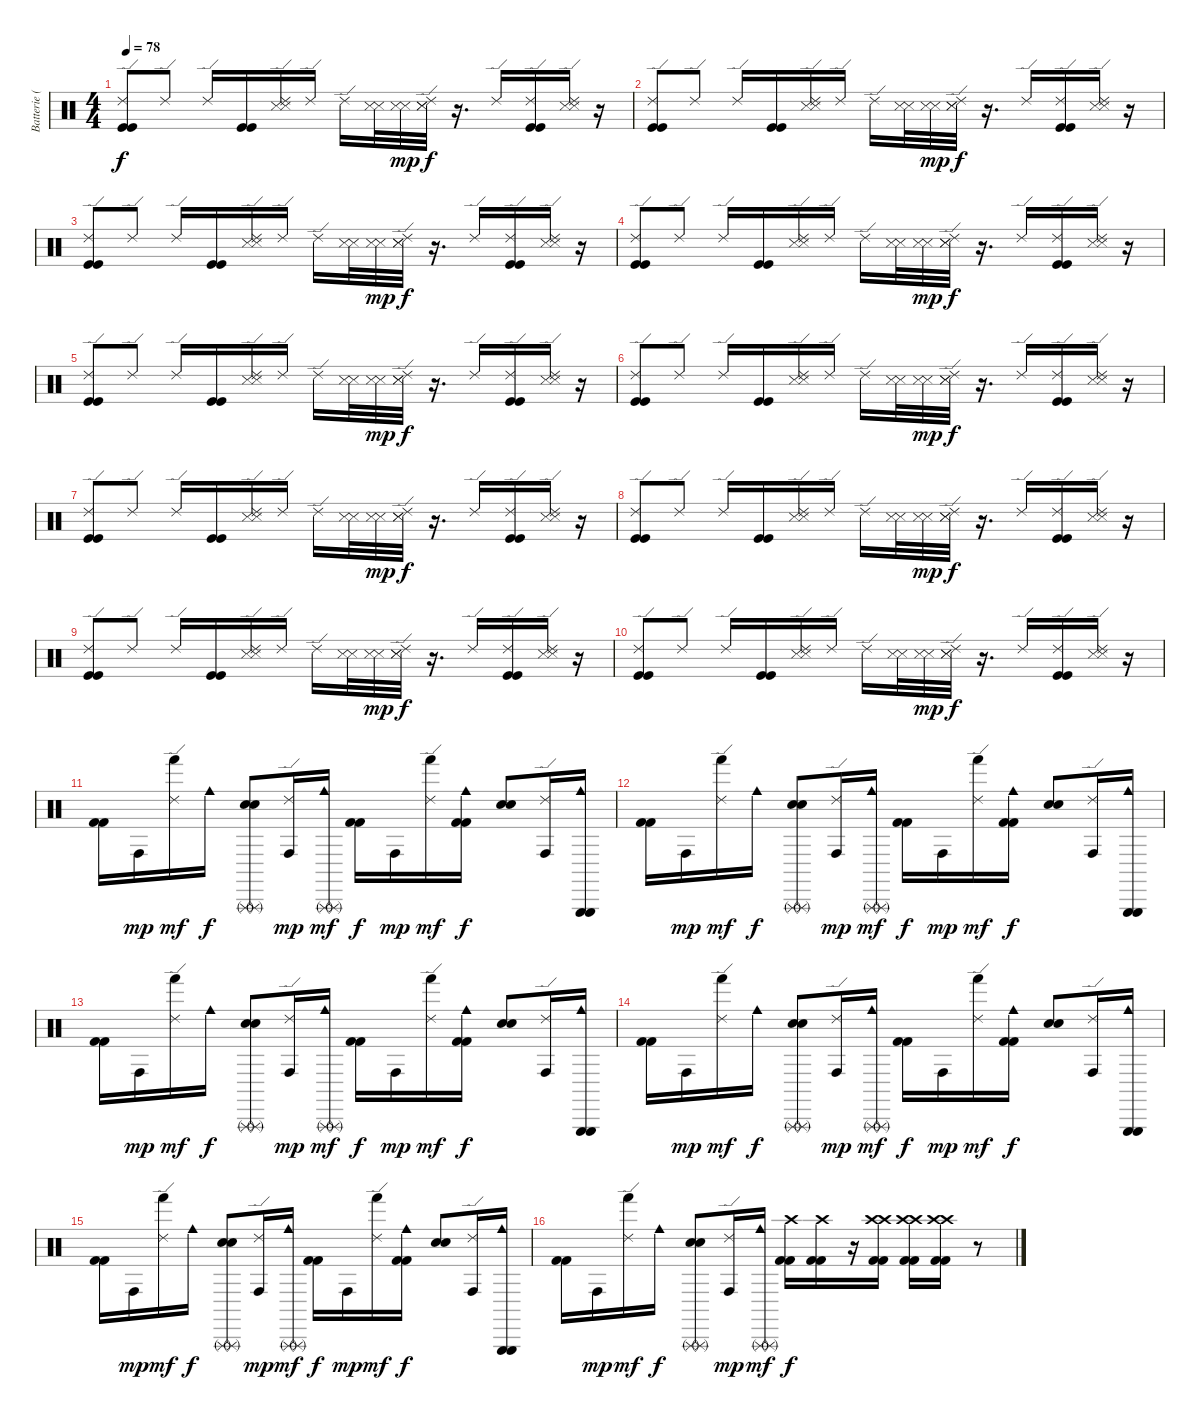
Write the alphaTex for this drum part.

\track ("Batterie ( Raphaël )" "Batterie (") {instrument percussion}
\staff {score}
\articulation defaults
\ts (4 4)
\tempo 78
\clef neutral
\ks c
("Ride (edge) 2" "Kick (hit)" "Kick (hit)").8{dy f} "Ride (edge) 2".8 "Ride (edge) 2".16 ("Kick (hit)" "Kick (hit)").16 ("Ride (edge) 2" "Snare (side stick) 3" "Snare (side stick) 3").16 "Ride (edge) 2".16 "Ride (edge) 2".16 ("Snare (side stick) 3" "Snare (side stick) 3").32 ("Snare (side stick) 3" "Snare (side stick) 3").32{dy mp} ("Ride (edge) 2" "Snare (side stick) 3" "Snare (side stick) 3").32{dy f} r.16{d} "Ride (edge) 2".16 ("Ride (edge) 2" "Kick (hit)" "Kick (hit)").16 ("Ride (edge) 2" "Snare (side stick) 3" "Snare (side stick) 3").16 r.16 |
("Ride (edge) 2" "Kick (hit)" "Kick (hit)").8 "Ride (edge) 2".8 "Ride (edge) 2".16 ("Kick (hit)" "Kick (hit)").16 ("Ride (edge) 2" "Snare (side stick) 3" "Snare (side stick) 3").16 "Ride (edge) 2".16 "Ride (edge) 2".16 ("Snare (side stick) 3" "Snare (side stick) 3").32 ("Snare (side stick) 3" "Snare (side stick) 3").32{dy mp} ("Ride (edge) 2" "Snare (side stick) 3" "Snare (side stick) 3").32{dy f} r.16{d} "Ride (edge) 2".16 ("Ride (edge) 2" "Kick (hit)" "Kick (hit)").16 ("Ride (edge) 2" "Snare (side stick) 3" "Snare (side stick) 3").16 r.16 |
("Ride (edge) 2" "Kick (hit)" "Kick (hit)").8 "Ride (edge) 2".8 "Ride (edge) 2".16 ("Kick (hit)" "Kick (hit)").16 ("Ride (edge) 2" "Snare (side stick) 3" "Snare (side stick) 3").16 "Ride (edge) 2".16 "Ride (edge) 2".16 ("Snare (side stick) 3" "Snare (side stick) 3").32 ("Snare (side stick) 3" "Snare (side stick) 3").32{dy mp} ("Ride (edge) 2" "Snare (side stick) 3" "Snare (side stick) 3").32{dy f} r.16{d} "Ride (edge) 2".16 ("Ride (edge) 2" "Kick (hit)" "Kick (hit)").16 ("Ride (edge) 2" "Snare (side stick) 3" "Snare (side stick) 3").16 r.16 |
("Ride (edge) 2" "Kick (hit)" "Kick (hit)").8 "Ride (edge) 2".8 "Ride (edge) 2".16 ("Kick (hit)" "Kick (hit)").16 ("Ride (edge) 2" "Snare (side stick) 3" "Snare (side stick) 3").16 "Ride (edge) 2".16 "Ride (edge) 2".16 ("Snare (side stick) 3" "Snare (side stick) 3").32 ("Snare (side stick) 3" "Snare (side stick) 3").32{dy mp} ("Ride (edge) 2" "Snare (side stick) 3" "Snare (side stick) 3").32{dy f} r.16{d} "Ride (edge) 2".16 ("Ride (edge) 2" "Kick (hit)" "Kick (hit)").16 ("Ride (edge) 2" "Snare (side stick) 3" "Snare (side stick) 3").16 r.16 |
("Ride (edge) 2" "Kick (hit)" "Kick (hit)").8 "Ride (edge) 2".8 "Ride (edge) 2".16 ("Kick (hit)" "Kick (hit)").16 ("Ride (edge) 2" "Snare (side stick) 3" "Snare (side stick) 3").16 "Ride (edge) 2".16 "Ride (edge) 2".16 ("Snare (side stick) 3" "Snare (side stick) 3").32 ("Snare (side stick) 3" "Snare (side stick) 3").32{dy mp} ("Ride (edge) 2" "Snare (side stick) 3" "Snare (side stick) 3").32{dy f} r.16{d} "Ride (edge) 2".16 ("Ride (edge) 2" "Kick (hit)" "Kick (hit)").16 ("Ride (edge) 2" "Snare (side stick) 3" "Snare (side stick) 3").16 r.16 |
("Ride (edge) 2" "Kick (hit)" "Kick (hit)").8 "Ride (edge) 2".8 "Ride (edge) 2".16 ("Kick (hit)" "Kick (hit)").16 ("Ride (edge) 2" "Snare (side stick) 3" "Snare (side stick) 3").16 "Ride (edge) 2".16 "Ride (edge) 2".16 ("Snare (side stick) 3" "Snare (side stick) 3").32 ("Snare (side stick) 3" "Snare (side stick) 3").32{dy mp} ("Ride (edge) 2" "Snare (side stick) 3" "Snare (side stick) 3").32{dy f} r.16{d} "Ride (edge) 2".16 ("Ride (edge) 2" "Kick (hit)" "Kick (hit)").16 ("Ride (edge) 2" "Snare (side stick) 3" "Snare (side stick) 3").16 r.16 |
("Ride (edge) 2" "Kick (hit)" "Kick (hit)").8 "Ride (edge) 2".8 "Ride (edge) 2".16 ("Kick (hit)" "Kick (hit)").16 ("Ride (edge) 2" "Snare (side stick) 3" "Snare (side stick) 3").16 "Ride (edge) 2".16 "Ride (edge) 2".16 ("Snare (side stick) 3" "Snare (side stick) 3").32 ("Snare (side stick) 3" "Snare (side stick) 3").32{dy mp} ("Ride (edge) 2" "Snare (side stick) 3" "Snare (side stick) 3").32{dy f} r.16{d} "Ride (edge) 2".16 ("Ride (edge) 2" "Kick (hit)" "Kick (hit)").16 ("Ride (edge) 2" "Snare (side stick) 3" "Snare (side stick) 3").16 r.16 |
("Ride (edge) 2" "Kick (hit)" "Kick (hit)").8 "Ride (edge) 2".8 "Ride (edge) 2".16 ("Kick (hit)" "Kick (hit)").16 ("Ride (edge) 2" "Snare (side stick) 3" "Snare (side stick) 3").16 "Ride (edge) 2".16 "Ride (edge) 2".16 ("Snare (side stick) 3" "Snare (side stick) 3").32 ("Snare (side stick) 3" "Snare (side stick) 3").32{dy mp} ("Ride (edge) 2" "Snare (side stick) 3" "Snare (side stick) 3").32{dy f} r.16{d} "Ride (edge) 2".16 ("Ride (edge) 2" "Kick (hit)" "Kick (hit)").16 ("Ride (edge) 2" "Snare (side stick) 3" "Snare (side stick) 3").16 r.16 |
("Ride (edge) 2" "Kick (hit)" "Kick (hit)").8 "Ride (edge) 2".8 "Ride (edge) 2".16 ("Kick (hit)" "Kick (hit)").16 ("Ride (edge) 2" "Snare (side stick) 3" "Snare (side stick) 3").16 "Ride (edge) 2".16 "Ride (edge) 2".16 ("Snare (side stick) 3" "Snare (side stick) 3").32 ("Snare (side stick) 3" "Snare (side stick) 3").32{dy mp} ("Ride (edge) 2" "Snare (side stick) 3" "Snare (side stick) 3").32{dy f} r.16{d} "Ride (edge) 2".16 ("Ride (edge) 2" "Kick (hit)" "Kick (hit)").16 ("Ride (edge) 2" "Snare (side stick) 3" "Snare (side stick) 3").16 r.16 |
("Ride (edge) 2" "Kick (hit)" "Kick (hit)").8 "Ride (edge) 2".8 "Ride (edge) 2".16 ("Kick (hit)" "Kick (hit)").16 ("Ride (edge) 2" "Snare (side stick) 3" "Snare (side stick) 3").16 "Ride (edge) 2".16 "Ride (edge) 2".16 ("Snare (side stick) 3" "Snare (side stick) 3").32 ("Snare (side stick) 3" "Snare (side stick) 3").32{dy mp} ("Ride (edge) 2" "Snare (side stick) 3" "Snare (side stick) 3").32{dy f} r.16{d} "Ride (edge) 2".16 ("Ride (edge) 2" "Kick (hit)" "Kick (hit)").16 ("Ride (edge) 2" "Snare (side stick) 3" "Snare (side stick) 3").16 r.16 |
("Kick (hit) 2" "Kick (hit) 2").16 "Conga high (hit)".16{dy mp} ("Ride (edge) 2" "Hand (hit)").16{dy mf} "Cowbell medium (hit)".16{dy f} ("Triangle (rnute)" "Triangle (rnute)" "Electric Snare (hit)" "Electric Snare (hit)").8 ("Ride (edge) 2" "Conga high (hit)").16{dy mp} ("Triangle (rnute)" "Triangle (rnute)" "Cowbell medium (hit)").16{dy mf} ("Kick (hit) 2" "Kick (hit) 2").16{dy f} "Conga high (hit)".16{dy mp} ("Ride (edge) 2" "Hand (hit)").16{dy mf} ("Cowbell medium (hit)" "Kick (hit) 2" "Kick (hit) 2").16{dy f} ("Electric Snare (hit)" "Electric Snare (hit)").8 ("Ride (edge) 2" "Conga high (hit)").16 ("Triangle (hit)" "Triangle (hit)" "Cowbell medium (hit)").16 |
("Kick (hit) 2" "Kick (hit) 2").16 "Conga high (hit)".16{dy mp} ("Ride (edge) 2" "Hand (hit)").16{dy mf} "Cowbell medium (hit)".16{dy f} ("Triangle (rnute)" "Triangle (rnute)" "Electric Snare (hit)" "Electric Snare (hit)").8 ("Ride (edge) 2" "Conga high (hit)").16{dy mp} ("Triangle (rnute)" "Triangle (rnute)" "Cowbell medium (hit)").16{dy mf} ("Kick (hit) 2" "Kick (hit) 2").16{dy f} "Conga high (hit)".16{dy mp} ("Ride (edge) 2" "Hand (hit)").16{dy mf} ("Cowbell medium (hit)" "Kick (hit) 2" "Kick (hit) 2").16{dy f} ("Electric Snare (hit)" "Electric Snare (hit)").8 ("Ride (edge) 2" "Conga high (hit)").16 ("Triangle (hit)" "Triangle (hit)" "Cowbell medium (hit)").16 |
("Kick (hit) 2" "Kick (hit) 2").16 "Conga high (hit)".16{dy mp} ("Ride (edge) 2" "Hand (hit)").16{dy mf} "Cowbell medium (hit)".16{dy f} ("Triangle (rnute)" "Triangle (rnute)" "Electric Snare (hit)" "Electric Snare (hit)").8 ("Ride (edge) 2" "Conga high (hit)").16{dy mp} ("Triangle (rnute)" "Triangle (rnute)" "Cowbell medium (hit)").16{dy mf} ("Kick (hit) 2" "Kick (hit) 2").16{dy f} "Conga high (hit)".16{dy mp} ("Ride (edge) 2" "Hand (hit)").16{dy mf} ("Cowbell medium (hit)" "Kick (hit) 2" "Kick (hit) 2").16{dy f} ("Electric Snare (hit)" "Electric Snare (hit)").8 ("Ride (edge) 2" "Conga high (hit)").16 ("Triangle (hit)" "Triangle (hit)" "Cowbell medium (hit)").16 |
("Kick (hit) 2" "Kick (hit) 2").16 "Conga high (hit)".16{dy mp} ("Ride (edge) 2" "Hand (hit)").16{dy mf} "Cowbell medium (hit)".16{dy f} ("Triangle (rnute)" "Triangle (rnute)" "Electric Snare (hit)" "Electric Snare (hit)").8 ("Ride (edge) 2" "Conga high (hit)").16{dy mp} ("Triangle (rnute)" "Triangle (rnute)" "Cowbell medium (hit)").16{dy mf} ("Kick (hit) 2" "Kick (hit) 2").16{dy f} "Conga high (hit)".16{dy mp} ("Ride (edge) 2" "Hand (hit)").16{dy mf} ("Cowbell medium (hit)" "Kick (hit) 2" "Kick (hit) 2").16{dy f} ("Electric Snare (hit)" "Electric Snare (hit)").8 ("Ride (edge) 2" "Conga high (hit)").16 ("Triangle (hit)" "Triangle (hit)" "Cowbell medium (hit)").16 |
("Kick (hit) 2" "Kick (hit) 2").16 "Conga high (hit)".16{dy mp} ("Ride (edge) 2" "Hand (hit)").16{dy mf} "Cowbell medium (hit)".16{dy f} ("Triangle (rnute)" "Triangle (rnute)" "Electric Snare (hit)" "Electric Snare (hit)").8 ("Ride (edge) 2" "Conga high (hit)").16{dy mp} ("Triangle (rnute)" "Triangle (rnute)" "Cowbell medium (hit)").16{dy mf} ("Kick (hit) 2" "Kick (hit) 2").16{dy f} "Conga high (hit)".16{dy mp} ("Ride (edge) 2" "Hand (hit)").16{dy mf} ("Cowbell medium (hit)" "Kick (hit) 2" "Kick (hit) 2").16{dy f} ("Electric Snare (hit)" "Electric Snare (hit)").8 ("Ride (edge) 2" "Conga high (hit)").16 ("Triangle (hit)" "Triangle (hit)" "Cowbell medium (hit)").16 |
("Kick (hit) 2" "Kick (hit) 2").16 "Conga high (hit)".16{dy mp} ("Ride (edge) 2" "Hand (hit)").16{dy mf} "Cowbell medium (hit)".16{dy f} ("Triangle (rnute)" "Triangle (rnute)" "Electric Snare (hit)" "Electric Snare (hit)").8 ("Ride (edge) 2" "Conga high (hit)").16{dy mp} ("Triangle (rnute)" "Triangle (rnute)" "Cowbell medium (hit)").16{dy mf} ("Crash high (hit)" "Kick (hit) 2" "Kick (hit) 2").16{dy f} ("Crash high (hit)" "Kick (hit) 2" "Kick (hit) 2").16 r.16 ("Crash high (hit)" "Crash high (hit)" "Kick (hit) 2" "Kick (hit) 2").16 ("Crash high (hit)" "Crash high (hit)" "Kick (hit) 2" "Kick (hit) 2").16 ("Crash high (hit)" "Crash high (hit)" "Kick (hit) 2" "Kick (hit) 2").16 r.8
